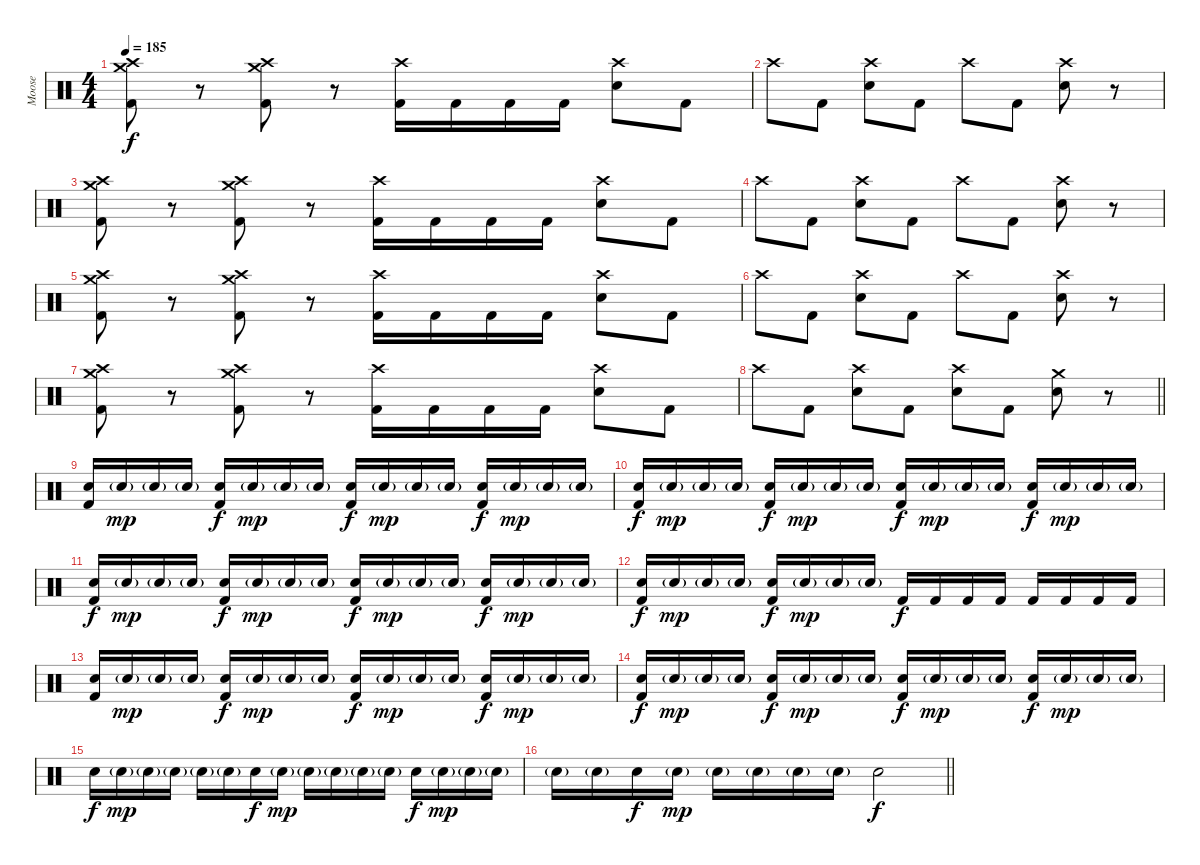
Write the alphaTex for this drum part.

\track ("Moose" "Moose") {instrument percussion}
\staff {score}
\articulation defaults
\ts (4 4)
\tempo 185
\clef neutral
\ks c
("Crash medium (hit)" "Crash high (hit)" "Kick (hit) 2").8{dy f} r.8 ("Crash medium (hit)" "Crash high (hit)" "Kick (hit) 2").8 r.8 ("Crash high (hit)" "Kick (hit) 2").16 "Kick (hit) 2".16 "Kick (hit) 2".16 "Kick (hit) 2".16 ("Crash high (hit)" "Electric Snare (hit)").8 "Kick (hit) 2".8 |
"Crash high (hit)".8 "Kick (hit) 2".8 ("Crash high (hit)" "Electric Snare (hit)").8 "Kick (hit) 2".8 "Crash high (hit)".8 "Kick (hit) 2".8 ("Crash high (hit)" "Electric Snare (hit)").8 r.8 |
("Crash medium (hit)" "Crash high (hit)" "Kick (hit) 2").8 r.8 ("Crash medium (hit)" "Crash high (hit)" "Kick (hit) 2").8 r.8 ("Crash high (hit)" "Kick (hit) 2").16 "Kick (hit) 2".16 "Kick (hit) 2".16 "Kick (hit) 2".16 ("Crash high (hit)" "Electric Snare (hit)").8 "Kick (hit) 2".8 |
"Crash high (hit)".8 "Kick (hit) 2".8 ("Crash high (hit)" "Electric Snare (hit)").8 "Kick (hit) 2".8 "Crash high (hit)".8 "Kick (hit) 2".8 ("Crash high (hit)" "Electric Snare (hit)").8 r.8 |
("Crash medium (hit)" "Crash high (hit)" "Kick (hit) 2").8 r.8 ("Crash medium (hit)" "Crash high (hit)" "Kick (hit) 2").8 r.8 ("Crash high (hit)" "Kick (hit) 2").16 "Kick (hit) 2".16 "Kick (hit) 2".16 "Kick (hit) 2".16 ("Crash high (hit)" "Electric Snare (hit)").8 "Kick (hit) 2".8 |
"Crash high (hit)".8 "Kick (hit) 2".8 ("Crash high (hit)" "Electric Snare (hit)").8 "Kick (hit) 2".8 "Crash high (hit)".8 "Kick (hit) 2".8 ("Crash high (hit)" "Electric Snare (hit)").8 r.8 |
("Crash medium (hit)" "Crash high (hit)" "Kick (hit) 2").8 r.8 ("Crash medium (hit)" "Crash high (hit)" "Kick (hit) 2").8 r.8 ("Crash high (hit)" "Kick (hit) 2").16 "Kick (hit) 2".16 "Kick (hit) 2".16 "Kick (hit) 2".16 ("Crash high (hit)" "Electric Snare (hit)").8 "Kick (hit) 2".8 |
\barLineRight lightlight "Crash high (hit)".8 "Kick (hit) 2".8
("Crash high (hit)" "Electric Snare (hit)").8 "Kick (hit) 2".8 ("Crash high (hit)" "Electric Snare (hit)").8 "Kick (hit) 2".8 ("Crash medium (hit)" "Electric Snare (hit)").8 r.8 |
("Electric Snare (hit)" "Kick (hit) 2").16 "Electric Snare (hit)"{g}.16{dy mp} "Electric Snare (hit)"{g}.16 "Electric Snare (hit)"{g}.16 ("Electric Snare (hit)" "Kick (hit) 2").16{dy f} "Electric Snare (hit)"{g}.16{dy mp} "Electric Snare (hit)"{g}.16 "Electric Snare (hit)"{g}.16 ("Electric Snare (hit)" "Kick (hit) 2").16{dy f} "Electric Snare (hit)"{g}.16{dy mp} "Electric Snare (hit)"{g}.16 "Electric Snare (hit)"{g}.16 ("Electric Snare (hit)" "Kick (hit) 2").16{dy f} "Electric Snare (hit)"{g}.16{dy mp} "Electric Snare (hit)"{g}.16 "Electric Snare (hit)"{g}.16 |
("Electric Snare (hit)" "Kick (hit) 2").16{dy f} "Electric Snare (hit)"{g}.16{dy mp} "Electric Snare (hit)"{g}.16 "Electric Snare (hit)"{g}.16 ("Electric Snare (hit)" "Kick (hit) 2").16{dy f} "Electric Snare (hit)"{g}.16{dy mp} "Electric Snare (hit)"{g}.16 "Electric Snare (hit)"{g}.16 ("Electric Snare (hit)" "Kick (hit) 2").16{dy f} "Electric Snare (hit)"{g}.16{dy mp} "Electric Snare (hit)"{g}.16 "Electric Snare (hit)"{g}.16 ("Electric Snare (hit)" "Kick (hit) 2").16{dy f} "Electric Snare (hit)"{g}.16{dy mp} "Electric Snare (hit)"{g}.16 "Electric Snare (hit)"{g}.16 |
("Electric Snare (hit)" "Kick (hit) 2").16{dy f} "Electric Snare (hit)"{g}.16{dy mp} "Electric Snare (hit)"{g}.16 "Electric Snare (hit)"{g}.16 ("Electric Snare (hit)" "Kick (hit) 2").16{dy f} "Electric Snare (hit)"{g}.16{dy mp} "Electric Snare (hit)"{g}.16 "Electric Snare (hit)"{g}.16 ("Electric Snare (hit)" "Kick (hit) 2").16{dy f} "Electric Snare (hit)"{g}.16{dy mp} "Electric Snare (hit)"{g}.16 "Electric Snare (hit)"{g}.16 ("Electric Snare (hit)" "Kick (hit) 2").16{dy f} "Electric Snare (hit)"{g}.16{dy mp} "Electric Snare (hit)"{g}.16 "Electric Snare (hit)"{g}.16 |
("Electric Snare (hit)" "Kick (hit) 2").16{dy f} "Electric Snare (hit)"{g}.16{dy mp} "Electric Snare (hit)"{g}.16 "Electric Snare (hit)"{g}.16 ("Electric Snare (hit)" "Kick (hit) 2").16{dy f} "Electric Snare (hit)"{g}.16{dy mp} "Electric Snare (hit)"{g}.16 "Electric Snare (hit)"{g}.16 "Kick (hit) 2".16{dy f} "Kick (hit) 2".16 "Kick (hit) 2".16 "Kick (hit) 2".16 "Kick (hit) 2".16 "Kick (hit) 2".16 "Kick (hit) 2".16 "Kick (hit) 2".16 |
("Electric Snare (hit)" "Kick (hit) 2").16 "Electric Snare (hit)"{g}.16{dy mp} "Electric Snare (hit)"{g}.16 "Electric Snare (hit)"{g}.16 ("Electric Snare (hit)" "Kick (hit) 2").16{dy f} "Electric Snare (hit)"{g}.16{dy mp} "Electric Snare (hit)"{g}.16 "Electric Snare (hit)"{g}.16 ("Electric Snare (hit)" "Kick (hit) 2").16{dy f} "Electric Snare (hit)"{g}.16{dy mp} "Electric Snare (hit)"{g}.16 "Electric Snare (hit)"{g}.16 ("Electric Snare (hit)" "Kick (hit) 2").16{dy f} "Electric Snare (hit)"{g}.16{dy mp} "Electric Snare (hit)"{g}.16 "Electric Snare (hit)"{g}.16 |
("Electric Snare (hit)" "Kick (hit) 2").16{dy f} "Electric Snare (hit)"{g}.16{dy mp} "Electric Snare (hit)"{g}.16 "Electric Snare (hit)"{g}.16 ("Electric Snare (hit)" "Kick (hit) 2").16{dy f} "Electric Snare (hit)"{g}.16{dy mp} "Electric Snare (hit)"{g}.16 "Electric Snare (hit)"{g}.16 ("Electric Snare (hit)" "Kick (hit) 2").16{dy f} "Electric Snare (hit)"{g}.16{dy mp} "Electric Snare (hit)"{g}.16 "Electric Snare (hit)"{g}.16 ("Electric Snare (hit)" "Kick (hit) 2").16{dy f} "Electric Snare (hit)"{g}.16{dy mp} "Electric Snare (hit)"{g}.16 "Electric Snare (hit)"{g}.16 |
"Electric Snare (hit)".16{dy f} "Electric Snare (hit)"{g}.16{dy mp} "Electric Snare (hit)"{g}.16 "Electric Snare (hit)"{g}.16 "Electric Snare (hit)"{g}.16 "Electric Snare (hit)"{g}.16 "Electric Snare (hit)".16{dy f} "Electric Snare (hit)"{g}.16{dy mp} "Electric Snare (hit)"{g}.16 "Electric Snare (hit)"{g}.16 "Electric Snare (hit)"{g}.16 "Electric Snare (hit)"{g}.16 "Electric Snare (hit)".16{dy f} "Electric Snare (hit)"{g}.16{dy mp} "Electric Snare (hit)"{g}.16 "Electric Snare (hit)"{g}.16 |
\barLineRight lightlight "Electric Snare (hit)"{g}.16 "Electric Snare (hit)"{g}.16 "Electric Snare (hit)".16{dy f} "Electric Snare (hit)"{g}.16{dy mp} "Electric Snare (hit)"{g}.16 "Electric Snare (hit)"{g}.16 "Electric Snare (hit)"{g}.16 "Electric Snare (hit)"{g}.16 "Electric Snare (hit)".2{dy f}
